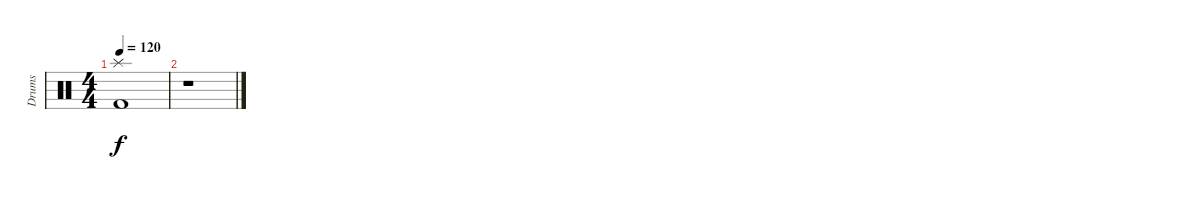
\track ("Drums" "Drums") {instrument percussion}
\staff {score}
\articulation defaults
\ts (4 4)
\tempo 120
\clef neutral
\ks c
("Kick (hit) 2" "Splash (hit)").1{dy f} |
r.1
